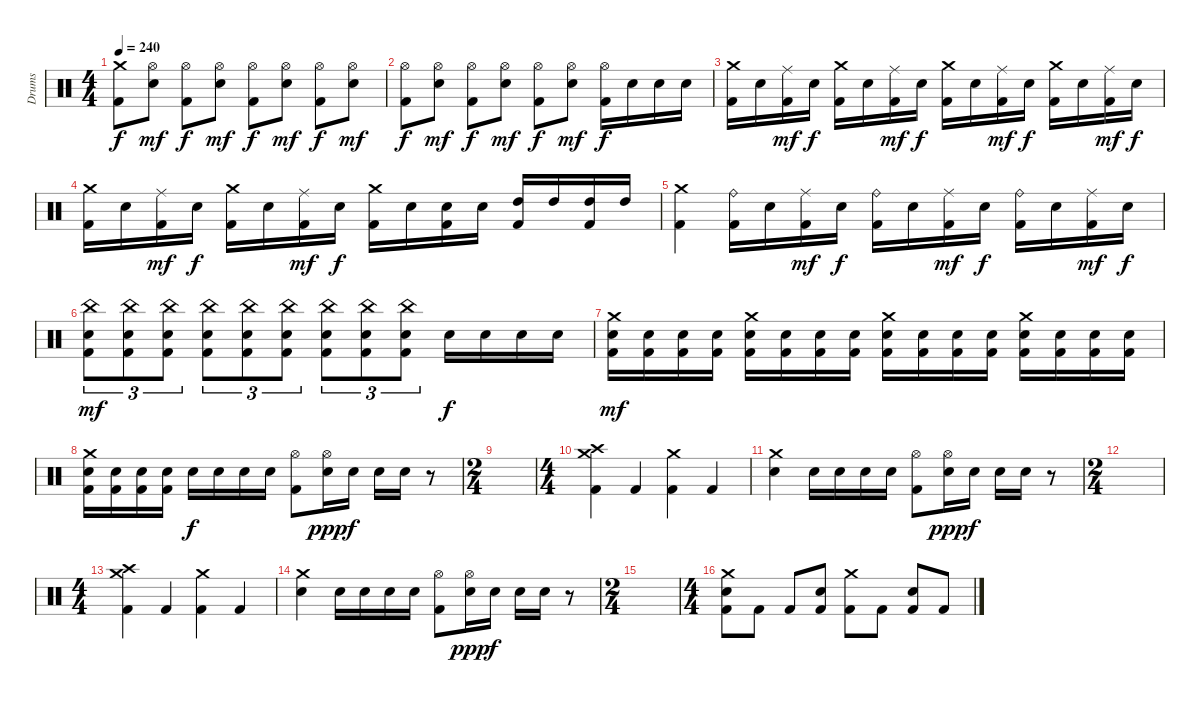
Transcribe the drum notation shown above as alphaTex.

\track ("Drums" "Drums") {instrument percussion}
\staff {score}
\articulation defaults
\ts (4 4)
\tempo 240
\clef neutral
\ks c
("Crash medium (hit)" "Kick (hit) 2").8{dy f} ("Hi-Hat (open)" "Electric Snare (hit)").8{dy mf} ("Hi-Hat (open)" "Kick (hit) 2").8{dy f} ("Hi-Hat (open)" "Electric Snare (hit)").8{dy mf} ("Hi-Hat (open)" "Kick (hit) 2").8{dy f} ("Hi-Hat (open)" "Electric Snare (hit)").8{dy mf} ("Hi-Hat (open)" "Kick (hit) 2").8{dy f} ("Hi-Hat (open)" "Electric Snare (hit)").8{dy mf} |
("Hi-Hat (open)" "Kick (hit) 2").8{dy f} ("Hi-Hat (open)" "Electric Snare (hit)").8{dy mf} ("Hi-Hat (open)" "Kick (hit) 2").8{dy f} ("Hi-Hat (open)" "Electric Snare (hit)").8{dy mf} ("Hi-Hat (open)" "Kick (hit) 2").8{dy f} ("Hi-Hat (open)" "Electric Snare (hit)").8{dy mf} ("Hi-Hat (open)" "Kick (hit) 2").16{dy f} "Electric Snare (hit)".16 "Electric Snare (hit)".16 "Electric Snare (hit)".16 |
("Crash medium (hit)" "Kick (hit) 2").16 "Electric Snare (hit)".16 ("Ride (middle)" "Kick (hit) 2").16{dy mf} "Electric Snare (hit)".16{dy f} ("Crash medium (hit)" "Kick (hit) 2").16 "Electric Snare (hit)".16 ("Ride (middle)" "Kick (hit) 2").16{dy mf} "Electric Snare (hit)".16{dy f} ("Crash medium (hit)" "Kick (hit) 2").16 "Electric Snare (hit)".16 ("Ride (middle)" "Kick (hit) 2").16{dy mf} "Electric Snare (hit)".16{dy f} ("Crash medium (hit)" "Kick (hit) 2").16 "Electric Snare (hit)".16 ("Ride (middle)" "Kick (hit) 2").16{dy mf} "Electric Snare (hit)".16{dy f} |
("Crash medium (hit)" "Kick (hit) 2").16 "Electric Snare (hit)".16 ("Ride (middle)" "Kick (hit) 2").16{dy mf} "Electric Snare (hit)".16{dy f} ("Crash medium (hit)" "Kick (hit) 2").16 "Electric Snare (hit)".16 ("Ride (middle)" "Kick (hit) 2").16{dy mf} "Electric Snare (hit)".16{dy f} ("Crash medium (hit)" "Kick (hit) 2").16 "Electric Snare (hit)".16 ("Electric Snare (hit)" "Kick (hit) 2").16 "Electric Snare (hit)".16 ("High Tom (hit)" "Kick (hit) 2").16 "High Tom (hit)".16 ("High Tom (hit)" "Kick (hit) 2").16 "High Tom (hit)".16 |
("Crash medium (hit)" "Kick (hit) 2").4 ("Ride (bell)" "Kick (hit) 2").16 "Electric Snare (hit)".16 ("Ride (middle)" "Kick (hit) 2").16{dy mf} "Electric Snare (hit)".16{dy f} ("Ride (bell)" "Kick (hit) 2").16 "Electric Snare (hit)".16 ("Ride (middle)" "Kick (hit) 2").16{dy mf} "Electric Snare (hit)".16{dy f} ("Ride (bell)" "Kick (hit) 2").16 "Electric Snare (hit)".16 ("Ride (middle)" "Kick (hit) 2").16{dy mf} "Electric Snare (hit)".16{dy f} |
("China (hit)" "Electric Snare (hit)" "Kick (hit) 2").8{tu (3 2) dy mf} ("China (hit)" "Electric Snare (hit)" "Kick (hit) 2").8{tu (3 2)} ("China (hit)" "Electric Snare (hit)" "Kick (hit) 2").8{tu (3 2)} ("China (hit)" "Electric Snare (hit)" "Kick (hit) 2").8{tu (3 2)} ("China (hit)" "Electric Snare (hit)" "Kick (hit) 2").8{tu (3 2)} ("China (hit)" "Electric Snare (hit)" "Kick (hit) 2").8{tu (3 2)} ("China (hit)" "Electric Snare (hit)" "Kick (hit) 2").8{tu (3 2)} ("China (hit)" "Electric Snare (hit)" "Kick (hit) 2").8{tu (3 2)} ("China (hit)" "Electric Snare (hit)" "Kick (hit) 2").8{tu (3 2)} "Electric Snare (hit)".16{dy f} "Electric Snare (hit)".16 "Electric Snare (hit)".16 "Electric Snare (hit)".16 |
("Crash medium (hit)" "Electric Snare (hit)" "Kick (hit) 2").16{dy mf} ("Electric Snare (hit)" "Kick (hit) 2").16 ("Electric Snare (hit)" "Kick (hit) 2").16 ("Electric Snare (hit)" "Kick (hit) 2").16 ("Crash medium (hit)" "Electric Snare (hit)" "Kick (hit) 2").16 ("Electric Snare (hit)" "Kick (hit) 2").16 ("Electric Snare (hit)" "Kick (hit) 2").16 ("Electric Snare (hit)" "Kick (hit) 2").16 ("Crash medium (hit)" "Electric Snare (hit)" "Kick (hit) 2").16 ("Electric Snare (hit)" "Kick (hit) 2").16 ("Electric Snare (hit)" "Kick (hit) 2").16 ("Electric Snare (hit)" "Kick (hit) 2").16 ("Crash medium (hit)" "Electric Snare (hit)" "Kick (hit) 2").16 ("Electric Snare (hit)" "Kick (hit) 2").16 ("Electric Snare (hit)" "Kick (hit) 2").16 ("Electric Snare (hit)" "Kick (hit) 2").16 |
("Crash medium (hit)" "Electric Snare (hit)" "Kick (hit) 2").16 ("Electric Snare (hit)" "Kick (hit) 2").16 ("Electric Snare (hit)" "Kick (hit) 2").16 ("Electric Snare (hit)" "Kick (hit) 2").16 "Electric Snare (hit)".16{dy f} "Electric Snare (hit)".16 "Electric Snare (hit)".16 "Electric Snare (hit)".16 ("Hi-Hat (open)" "Kick (hit) 2").8 ("Hi-Hat (open)" "Electric Snare (hit)").16{dy ppp} "Electric Snare (hit)".16{dy f} "Electric Snare (hit)".16 "Electric Snare (hit)".16 r.8 |
\ts (2 4)
|
\ts (4 4)
("Crash medium (hit)" "Crash high (hit)" "Kick (hit) 2").4 "Kick (hit) 2".4 ("Crash medium (hit)" "Kick (hit) 2").4 "Kick (hit) 2".4 |
("Crash medium (hit)" "Electric Snare (hit)").4 "Electric Snare (hit)".16 "Electric Snare (hit)".16 "Electric Snare (hit)".16 "Electric Snare (hit)".16 ("Hi-Hat (open)" "Kick (hit) 2").8 ("Hi-Hat (open)" "Electric Snare (hit)").16{dy ppp} "Electric Snare (hit)".16{dy f} "Electric Snare (hit)".16 "Electric Snare (hit)".16 r.8 |
\ts (2 4)
|
\ts (4 4)
("Crash medium (hit)" "Crash high (hit)" "Kick (hit) 2").4 "Kick (hit) 2".4 ("Crash medium (hit)" "Kick (hit) 2").4 "Kick (hit) 2".4 |
("Crash medium (hit)" "Electric Snare (hit)").4 "Electric Snare (hit)".16 "Electric Snare (hit)".16 "Electric Snare (hit)".16 "Electric Snare (hit)".16 ("Hi-Hat (open)" "Kick (hit) 2").8 ("Hi-Hat (open)" "Electric Snare (hit)").16{dy ppp} "Electric Snare (hit)".16{dy f} "Electric Snare (hit)".16 "Electric Snare (hit)".16 r.8 |
\ts (2 4)
|
\ts (4 4)
("Crash medium (hit)" "Electric Snare (hit)" "Kick (hit) 2").8 "Kick (hit) 2".8 "Kick (hit) 2".8 ("Electric Snare (hit)" "Kick (hit) 2").8 ("Crash medium (hit)" "Kick (hit) 2").8 "Kick (hit) 2".8 ("Electric Snare (hit)" "Kick (hit) 2").8 "Kick (hit) 2".8
